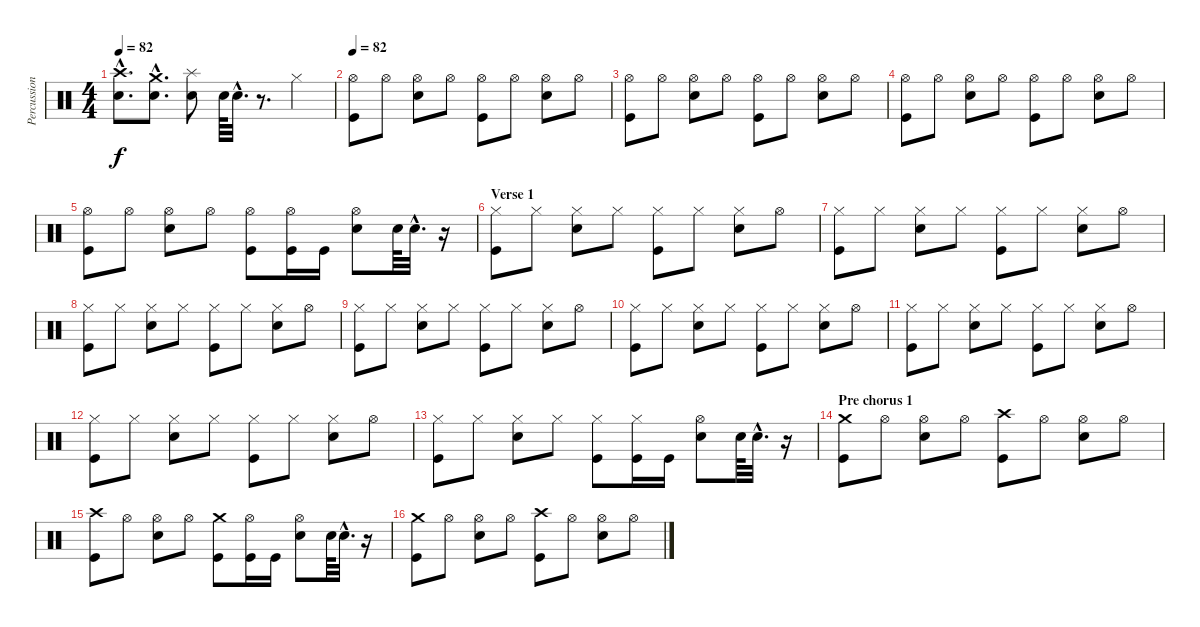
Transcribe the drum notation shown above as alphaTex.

\track ("Percussion" "Percussion") {instrument percussion}
\staff {score}
\articulation defaults
\ts (4 4)
\tempo 82
\clef neutral
\ks c
("Crash high (hit)"{hac} "Snare (hit) 2"{hac}).8{d dy f} ("Crash medium (hit)"{hac} "Snare (hit) 2"{hac}).8{d} ("Splash (hit)" "Snare (hit) 2").8 "Snare (hit) 2".64 "Snare (hit) 2"{hac}.32{d} r.8{d} "Hi-Hat (closed)".4 |
\tempo 82
("Hi-Hat (open)" "Kick (hit)").8 "Hi-Hat (open)".8 ("Hi-Hat (open)" "Snare (hit) 2").8 "Hi-Hat (open)".8 ("Hi-Hat (open)" "Kick (hit)").8 "Hi-Hat (open)".8 ("Hi-Hat (open)" "Snare (hit) 2").8 "Hi-Hat (open)".8 |
("Hi-Hat (open)" "Kick (hit)").8 "Hi-Hat (open)".8 ("Hi-Hat (open)" "Snare (hit) 2").8 "Hi-Hat (open)".8 ("Hi-Hat (open)" "Kick (hit)").8 "Hi-Hat (open)".8 ("Hi-Hat (open)" "Snare (hit) 2").8 "Hi-Hat (open)".8 |
("Hi-Hat (open)" "Kick (hit)").8 "Hi-Hat (open)".8 ("Hi-Hat (open)" "Snare (hit) 2").8 "Hi-Hat (open)".8 ("Hi-Hat (open)" "Kick (hit)").8 "Hi-Hat (open)".8 ("Hi-Hat (open)" "Snare (hit) 2").8 "Hi-Hat (open)".8 |
("Hi-Hat (open)" "Kick (hit)").8 "Hi-Hat (open)".8 ("Hi-Hat (open)" "Snare (hit) 2").8 "Hi-Hat (open)".8 ("Hi-Hat (open)" "Kick (hit)").8 ("Hi-Hat (open)" "Kick (hit)").16 "Kick (hit)".16 ("Hi-Hat (open)" "Snare (hit) 2").8 "Snare (hit) 2".64 "Snare (hit) 2"{hac}.32{d} r.16 |
\section ("" "Verse 1")
("Hi-Hat (closed)" "Kick (hit)").8 "Hi-Hat (closed)".8 ("Hi-Hat (closed)" "Snare (hit) 2").8 "Hi-Hat (closed)".8 ("Hi-Hat (closed)" "Kick (hit)").8 "Hi-Hat (closed)".8 ("Hi-Hat (closed)" "Snare (hit) 2").8 "Hi-Hat (open)".8 |
("Hi-Hat (closed)" "Kick (hit)").8 "Hi-Hat (closed)".8 ("Hi-Hat (closed)" "Snare (hit) 2").8 "Hi-Hat (closed)".8 ("Hi-Hat (closed)" "Kick (hit)").8 "Hi-Hat (closed)".8 ("Hi-Hat (closed)" "Snare (hit) 2").8 "Hi-Hat (open)".8 |
("Hi-Hat (closed)" "Kick (hit)").8 "Hi-Hat (closed)".8 ("Hi-Hat (closed)" "Snare (hit) 2").8 "Hi-Hat (closed)".8 ("Hi-Hat (closed)" "Kick (hit)").8 "Hi-Hat (closed)".8 ("Hi-Hat (closed)" "Snare (hit) 2").8 "Hi-Hat (open)".8 |
("Hi-Hat (closed)" "Kick (hit)").8 "Hi-Hat (closed)".8 ("Hi-Hat (closed)" "Snare (hit) 2").8 "Hi-Hat (closed)".8 ("Hi-Hat (closed)" "Kick (hit)").8 "Hi-Hat (closed)".8 ("Hi-Hat (closed)" "Snare (hit) 2").8 "Hi-Hat (open)".8 |
("Hi-Hat (closed)" "Kick (hit)").8 "Hi-Hat (closed)".8 ("Hi-Hat (closed)" "Snare (hit) 2").8 "Hi-Hat (closed)".8 ("Hi-Hat (closed)" "Kick (hit)").8 "Hi-Hat (closed)".8 ("Hi-Hat (closed)" "Snare (hit) 2").8 "Hi-Hat (open)".8 |
("Hi-Hat (closed)" "Kick (hit)").8 "Hi-Hat (closed)".8 ("Hi-Hat (closed)" "Snare (hit) 2").8 "Hi-Hat (closed)".8 ("Hi-Hat (closed)" "Kick (hit)").8 "Hi-Hat (closed)".8 ("Hi-Hat (closed)" "Snare (hit) 2").8 "Hi-Hat (open)".8 |
("Hi-Hat (closed)" "Kick (hit)").8 "Hi-Hat (closed)".8 ("Hi-Hat (closed)" "Snare (hit) 2").8 "Hi-Hat (closed)".8 ("Hi-Hat (closed)" "Kick (hit)").8 "Hi-Hat (closed)".8 ("Hi-Hat (closed)" "Snare (hit) 2").8 "Hi-Hat (open)".8 |
("Hi-Hat (closed)" "Kick (hit)").8 "Hi-Hat (closed)".8 ("Hi-Hat (closed)" "Snare (hit) 2").8 "Hi-Hat (closed)".8 ("Hi-Hat (closed)" "Kick (hit)").8 ("Hi-Hat (closed)" "Kick (hit)").16 "Kick (hit)".16 ("Hi-Hat (open)" "Snare (hit) 2").8 "Snare (hit) 2".64 "Snare (hit) 2"{hac}.32{d} r.16 |
\section ("" "Pre chorus 1")
("Crash medium (hit)" "Kick (hit)").8 "Hi-Hat (open)".8 ("Hi-Hat (open)" "Snare (hit) 2").8 "Hi-Hat (open)".8 ("Crash high (hit)" "Kick (hit)").8 "Hi-Hat (open)".8 ("Hi-Hat (open)" "Snare (hit) 2").8 "Hi-Hat (open)".8 |
("Crash high (hit)" "Kick (hit)").8 "Hi-Hat (open)".8 ("Hi-Hat (open)" "Snare (hit) 2").8 "Hi-Hat (open)".8 ("Crash medium (hit)" "Kick (hit)").8 ("Hi-Hat (open)" "Kick (hit)").16 "Kick (hit)".16 ("Hi-Hat (open)" "Snare (hit) 2").8 "Snare (hit) 2".64 "Snare (hit) 2"{hac}.32{d} r.16 |
("Crash medium (hit)" "Kick (hit)").8 "Hi-Hat (open)".8 ("Hi-Hat (open)" "Snare (hit) 2").8 "Hi-Hat (open)".8 ("Crash high (hit)" "Kick (hit)").8 "Hi-Hat (open)".8 ("Hi-Hat (open)" "Snare (hit) 2").8 "Hi-Hat (open)".8
